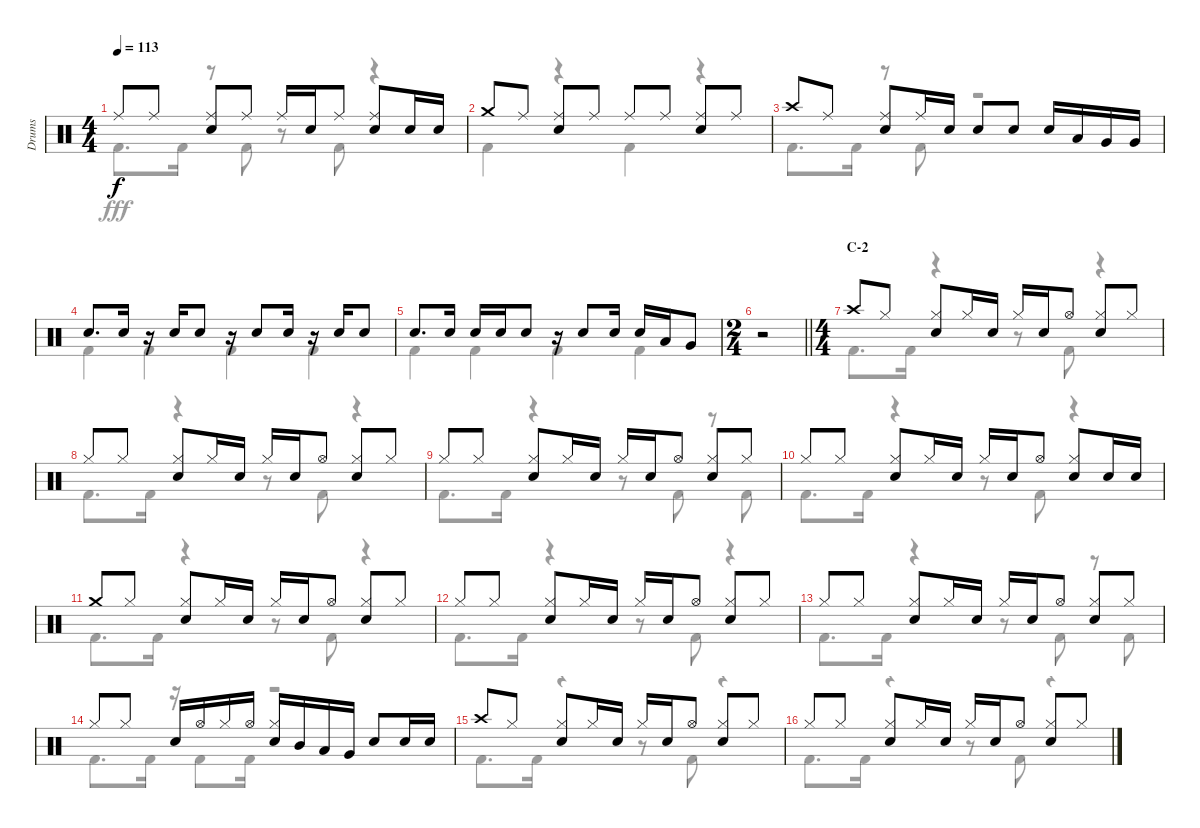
\track ("Drums" "Drums") {instrument percussion}
\staff {score}
\articulation defaults
\voice
\ts (4 4)
\tempo 113
\clef neutral
\ks c "Ride (middle)".8{dy f} "Ride (middle)".8
("Ride (middle)" "Snare (hit) 2").8 "Ride (middle)".8 "Ride (middle)".16 "Snare (hit) 2".16 "Ride (middle)".8 ("Ride (middle)" "Snare (hit) 2").8 "Snare (hit) 2".16 "Snare (hit) 2".16 |
"Crash medium (hit)".8 "Ride (middle)".8 ("Ride (middle)" "Snare (hit) 2").8 "Ride (middle)".8 "Ride (middle)".8 "Ride (middle)".8 ("Ride (middle)" "Snare (hit) 2").8 "Ride (middle)".8 |
"Crash high (hit)".8 "Ride (middle)".8 ("Ride (middle)" "Snare (hit) 2").8 "Ride (middle)".16 "Snare (hit) 2".16 "Snare (hit) 2".8 "Snare (hit) 2".8 "Snare (hit) 2".16 "Low Tom (hit)".16 "Very Low Tom (hit)".16 "Very Low Tom (hit)".16 |
"Snare (hit) 2".8{d} "Snare (hit) 2".16 r.16 "Snare (hit) 2".16 "Snare (hit) 2".8 r.16 "Snare (hit) 2".8 "Snare (hit) 2".16 r.16 "Snare (hit) 2".16 "Snare (hit) 2".8 |
"Snare (hit) 2".8{d} "Snare (hit) 2".16 "Snare (hit) 2".16 "Snare (hit) 2".16 "Snare (hit) 2".8 r.16 "Snare (hit) 2".8 "Snare (hit) 2".16 "Snare (hit) 2".16 "Low Tom (hit)".16 "Very Low Tom (hit)".8 |
\ts (2 4)
\barLineRight lightlight
r.2 |
\ts (4 4)
\section ("" "C-2")
"Crash high (hit)".8 "Hi-Hat (closed)".8 ("Hi-Hat (closed)" "Snare (hit) 2").8 "Hi-Hat (closed)".16 "Snare (hit) 2".16 "Hi-Hat (closed)".16 "Snare (hit) 2".16 "Hi-Hat (open)".8 ("Hi-Hat (closed)" "Snare (hit) 2").8 "Hi-Hat (closed)".8 |
"Hi-Hat (closed)".8 "Hi-Hat (closed)".8 ("Hi-Hat (closed)" "Snare (hit) 2").8 "Hi-Hat (closed)".16 "Snare (hit) 2".16 "Hi-Hat (closed)".16 "Snare (hit) 2".16 "Hi-Hat (open)".8 ("Hi-Hat (closed)" "Snare (hit) 2").8 "Hi-Hat (closed)".8 |
"Hi-Hat (closed)".8 "Hi-Hat (closed)".8 ("Hi-Hat (closed)" "Snare (hit) 2").8 "Hi-Hat (closed)".16 "Snare (hit) 2".16 "Hi-Hat (closed)".16 "Snare (hit) 2".16 "Hi-Hat (open)".8 ("Hi-Hat (closed)" "Snare (hit) 2").8 "Hi-Hat (closed)".8 |
"Hi-Hat (closed)".8 "Hi-Hat (closed)".8 ("Hi-Hat (closed)" "Snare (hit) 2").8 "Hi-Hat (closed)".16 "Snare (hit) 2".16 "Hi-Hat (closed)".16 "Snare (hit) 2".16 "Hi-Hat (open)".8 ("Hi-Hat (closed)" "Snare (hit) 2").8 "Snare (hit) 2".16 "Snare (hit) 2".16 |
"Crash medium (hit)".8 "Hi-Hat (closed)".8 ("Hi-Hat (closed)" "Snare (hit) 2").8 "Hi-Hat (closed)".16 "Snare (hit) 2".16 "Hi-Hat (closed)".16 "Snare (hit) 2".16 "Hi-Hat (open)".8 ("Hi-Hat (closed)" "Snare (hit) 2").8 "Hi-Hat (closed)".8 |
"Hi-Hat (closed)".8 "Hi-Hat (closed)".8 ("Hi-Hat (closed)" "Snare (hit) 2").8 "Hi-Hat (closed)".16 "Snare (hit) 2".16 "Hi-Hat (closed)".16 "Snare (hit) 2".16 "Hi-Hat (open)".8 ("Hi-Hat (closed)" "Snare (hit) 2").8 "Hi-Hat (closed)".8 |
"Hi-Hat (closed)".8 "Hi-Hat (closed)".8 ("Hi-Hat (closed)" "Snare (hit) 2").8 "Hi-Hat (closed)".16 "Snare (hit) 2".16 "Hi-Hat (closed)".16 "Snare (hit) 2".16 "Hi-Hat (open)".8 ("Hi-Hat (closed)" "Snare (hit) 2").8 "Hi-Hat (closed)".8 |
"Hi-Hat (closed)".8 "Hi-Hat (closed)".8 "Snare (hit) 2".16 "Hi-Hat (open)".16 "Hi-Hat (closed)".16 "Hi-Hat (open)".16 ("Hi-Hat (closed)" "Snare (hit) 2").16 "Mid Tom (hit)".16 "Low Tom (hit)".16 "Very Low Tom (hit)".16 "Snare (hit) 2".8 "Snare (hit) 2".16 "Snare (hit) 2".16 |
"Crash high (hit)".8 "Hi-Hat (closed)".8 ("Hi-Hat (closed)" "Snare (hit) 2").8 "Hi-Hat (closed)".16 "Snare (hit) 2".16 "Hi-Hat (closed)".16 "Snare (hit) 2".16 "Hi-Hat (open)".8 ("Hi-Hat (closed)" "Snare (hit) 2").8 "Hi-Hat (closed)".8 |
"Hi-Hat (closed)".8 "Hi-Hat (closed)".8 ("Hi-Hat (closed)" "Snare (hit) 2").8 "Hi-Hat (closed)".16 "Snare (hit) 2".16 "Hi-Hat (closed)".16 "Snare (hit) 2".16 "Hi-Hat (open)".8 ("Hi-Hat (closed)" "Snare (hit) 2").8 "Hi-Hat (closed)".8
\voice
\clef neutral
\ottava regular
\simile none
\ks c "Kick (hit) 2".8{d dy fff} "Kick (hit) 2".16
r.8 "Kick (hit) 2".8 r.8 "Kick (hit) 2".8 r.4 |
"Kick (hit) 2".4 r.4 "Kick (hit) 2".4 r.4 |
"Kick (hit) 2".8{d} "Kick (hit) 2".16 r.8 "Kick (hit) 2".8 r.2 |
"Kick (hit) 2".4 "Kick (hit) 2".4 "Kick (hit) 2".4 "Kick (hit) 2".4 |
"Kick (hit) 2".4 "Kick (hit) 2".4 "Kick (hit) 2".4 "Kick (hit) 2".4 |
\barLineRight lightlight
r.2 |
"Kick (hit) 2".8{d} "Kick (hit) 2".16 r.4 r.8 "Kick (hit) 2".8 r.4 |
"Kick (hit) 2".8{d} "Kick (hit) 2".16 r.4 r.8 "Kick (hit) 2".8 r.4 |
"Kick (hit) 2".8{d} "Kick (hit) 2".16 r.4 r.8 "Kick (hit) 2".8 r.8 "Kick (hit) 2".8 |
"Kick (hit) 2".8{d} "Kick (hit) 2".16 r.4 r.8 "Kick (hit) 2".8 r.4 |
"Kick (hit) 2".8{d} "Kick (hit) 2".16 r.4 r.8 "Kick (hit) 2".8 r.4 |
"Kick (hit) 2".8{d} "Kick (hit) 2".16 r.4 r.8 "Kick (hit) 2".8 r.4 |
"Kick (hit) 2".8{d} "Kick (hit) 2".16 r.4 r.8 "Kick (hit) 2".8 r.8 "Kick (hit) 2".8 |
"Kick (hit) 2".8{d} "Kick (hit) 2".16 r.16 "Kick (hit) 2".8 "Kick (hit) 2".16 r.2 |
"Kick (hit) 2".8{d} "Kick (hit) 2".16 r.4 r.8 "Kick (hit) 2".8 r.4 |
"Kick (hit) 2".8{d} "Kick (hit) 2".16 r.4 r.8 "Kick (hit) 2".8 r.4
